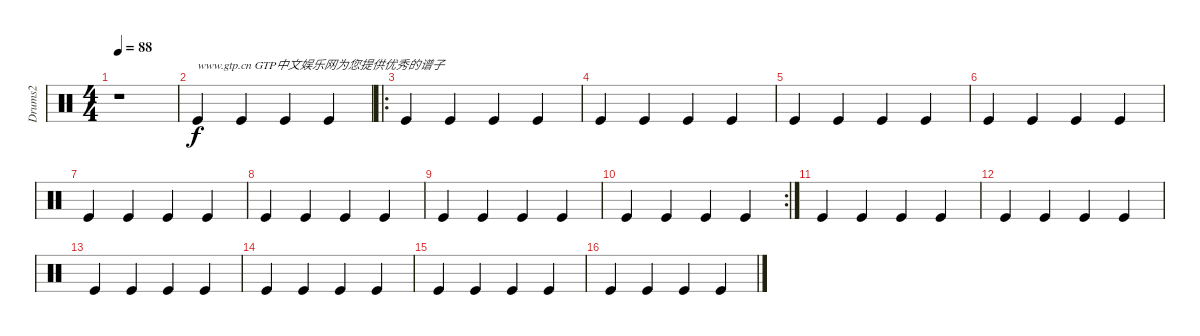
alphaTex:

\track ("Drums2" "Drums2") {instrument percussion}
\staff {score}
\articulation defaults
\ts (4 4)
\tempo 88
\clef neutral
\ks c
r.1{dy f} |
"Kick (hit)".4{txt "www.gtp.cn GTP中文娱乐网为您提供优秀的谱子"} "Kick (hit)".4 "Kick (hit)".4 "Kick (hit)".4 |
\ro "Kick (hit)".4 "Kick (hit)".4 "Kick (hit)".4 "Kick (hit)".4
|
"Kick (hit)".4 "Kick (hit)".4 "Kick (hit)".4 "Kick (hit)".4 |
"Kick (hit)".4 "Kick (hit)".4 "Kick (hit)".4 "Kick (hit)".4 |
"Kick (hit)".4 "Kick (hit)".4 "Kick (hit)".4 "Kick (hit)".4 |
"Kick (hit)".4 "Kick (hit)".4 "Kick (hit)".4 "Kick (hit)".4 |
"Kick (hit)".4 "Kick (hit)".4 "Kick (hit)".4 "Kick (hit)".4 |
"Kick (hit)".4 "Kick (hit)".4 "Kick (hit)".4 "Kick (hit)".4 |
\rc 2 "Kick (hit)".4 "Kick (hit)".4 "Kick (hit)".4 "Kick (hit)".4
|
"Kick (hit)".4 "Kick (hit)".4 "Kick (hit)".4 "Kick (hit)".4 |
"Kick (hit)".4 "Kick (hit)".4 "Kick (hit)".4 "Kick (hit)".4 |
"Kick (hit)".4 "Kick (hit)".4 "Kick (hit)".4 "Kick (hit)".4 |
"Kick (hit)".4 "Kick (hit)".4 "Kick (hit)".4 "Kick (hit)".4 |
"Kick (hit)".4 "Kick (hit)".4 "Kick (hit)".4 "Kick (hit)".4 |
"Kick (hit)".4 "Kick (hit)".4 "Kick (hit)".4 "Kick (hit)".4
